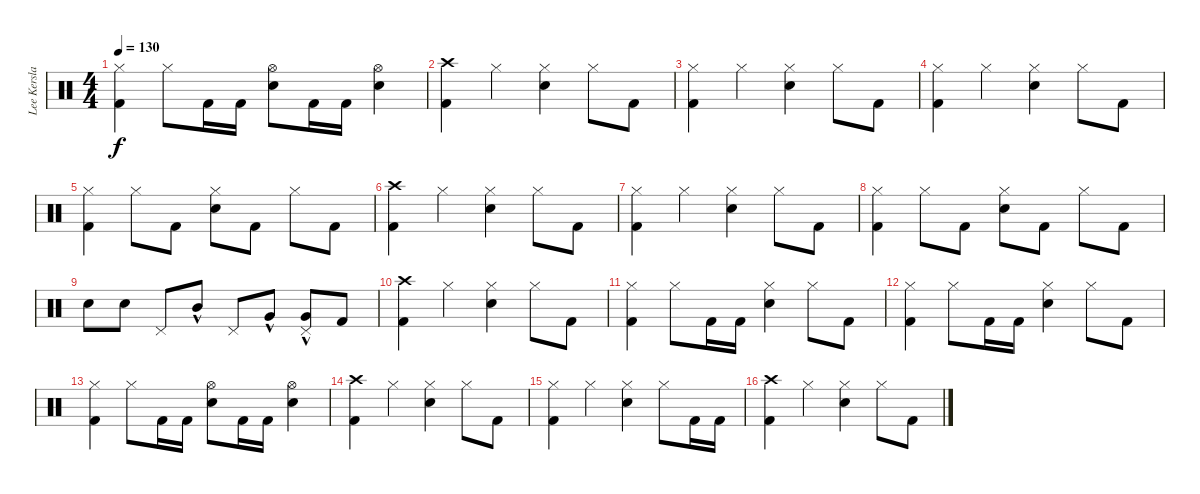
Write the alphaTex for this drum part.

\track ("Lee Kerslake" "Lee Kersla") {instrument percussion}
\staff {score}
\articulation defaults
\ts (4 4)
\tempo 130
\clef neutral
\ks c
("Hi-Hat (closed)" "Kick (hit) 2").4{dy f} "Hi-Hat (closed)".8 "Kick (hit) 2".16 "Kick (hit) 2".16 ("Snare (hit) 2" "Hi-Hat (open)").8 "Kick (hit) 2".16 "Kick (hit) 2".16 ("Hi-Hat (open)" "Snare (hit) 2").4 |
("Kick (hit) 2" "Crash high (hit)").4 "Hi-Hat (closed)".4 ("Hi-Hat (closed)" "Snare (hit) 2").4 "Hi-Hat (closed)".8 "Kick (hit) 2".8 |
("Kick (hit) 2" "Hi-Hat (closed)").4 "Hi-Hat (closed)".4 ("Hi-Hat (closed)" "Snare (hit) 2").4 "Hi-Hat (closed)".8 "Kick (hit) 2".8 |
("Kick (hit) 2" "Hi-Hat (closed)").4 "Hi-Hat (closed)".4 ("Hi-Hat (closed)" "Snare (hit) 2").4 "Hi-Hat (closed)".8 "Kick (hit) 2".8 |
("Hi-Hat (closed)" "Kick (hit) 2").4 "Hi-Hat (closed)".8 "Kick (hit) 2".8 ("Hi-Hat (closed)" "Snare (hit) 2").8 "Kick (hit) 2".8 "Hi-Hat (closed)".8 "Kick (hit) 2".8 |
("Kick (hit) 2" "Crash high (hit)").4 "Hi-Hat (closed)".4 ("Hi-Hat (closed)" "Snare (hit) 2").4 "Hi-Hat (closed)".8 "Kick (hit) 2".8 |
("Kick (hit) 2" "Hi-Hat (closed)").4 "Hi-Hat (closed)".4 ("Hi-Hat (closed)" "Snare (hit) 2").4 "Hi-Hat (closed)".8 "Kick (hit) 2".8 |
("Hi-Hat (closed)" "Kick (hit) 2").4 "Hi-Hat (closed)".8 "Kick (hit) 2".8 ("Hi-Hat (closed)" "Snare (hit) 2").8 "Kick (hit) 2".8 "Hi-Hat (closed)".8 "Kick (hit) 2".8 |
"Snare (hit) 2".8 "Snare (hit) 2".8 "Pedal Hi-Hat (hit)".8 "Mid Tom (hit)"{hac}.8 "Pedal Hi-Hat (hit)".8 "Very Low Tom (hit)"{hac}.8 ("Pedal Hi-Hat (hit)" "Very Low Tom (hit)"{hac}).8 "Kick (hit) 2".8 |
("Kick (hit) 2" "Crash high (hit)").4 "Hi-Hat (closed)".4 ("Hi-Hat (closed)" "Snare (hit) 2").4 "Hi-Hat (closed)".8 "Kick (hit) 2".8 |
("Kick (hit) 2" "Hi-Hat (closed)").4 "Hi-Hat (closed)".8 "Kick (hit) 2".16 "Kick (hit) 2".16 ("Hi-Hat (closed)" "Snare (hit) 2").4 "Hi-Hat (closed)".8 "Kick (hit) 2".8 |
("Kick (hit) 2" "Hi-Hat (closed)").4 "Hi-Hat (closed)".8 "Kick (hit) 2".16 "Kick (hit) 2".16 ("Hi-Hat (closed)" "Snare (hit) 2").4 "Hi-Hat (closed)".8 "Kick (hit) 2".8 |
("Hi-Hat (closed)" "Kick (hit) 2").4 "Hi-Hat (closed)".8 "Kick (hit) 2".16 "Kick (hit) 2".16 ("Snare (hit) 2" "Hi-Hat (open)").8 "Kick (hit) 2".16 "Kick (hit) 2".16 ("Hi-Hat (open)" "Snare (hit) 2").4 |
("Kick (hit) 2" "Crash high (hit)").4 "Hi-Hat (closed)".4 ("Hi-Hat (closed)" "Snare (hit) 2").4 "Hi-Hat (closed)".8 "Kick (hit) 2".8 |
("Kick (hit) 2" "Hi-Hat (closed)").4 "Hi-Hat (closed)".4 ("Hi-Hat (closed)" "Snare (hit) 2").4 "Hi-Hat (closed)".8 "Kick (hit) 2".16 "Kick (hit) 2".16 |
("Kick (hit) 2" "Crash high (hit)").4 "Hi-Hat (closed)".4 ("Hi-Hat (closed)" "Snare (hit) 2").4 "Hi-Hat (closed)".8 "Kick (hit) 2".8
